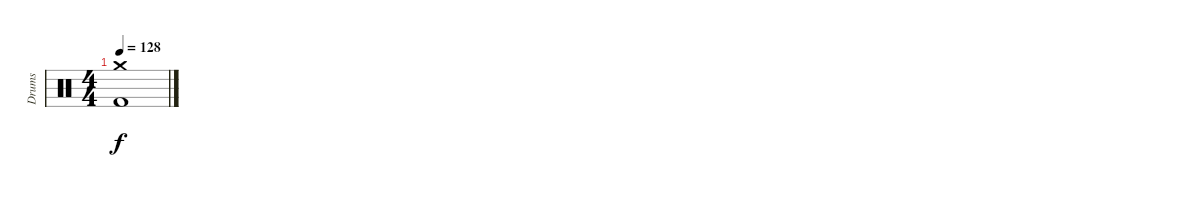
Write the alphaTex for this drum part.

\track ("Drums" "Drums") {instrument percussion}
\staff {score}
\articulation defaults
\ts (4 4)
\tempo 128
\clef neutral
\ks c
("Crash medium (hit)" "Kick (hit) 2").1{dy f}
